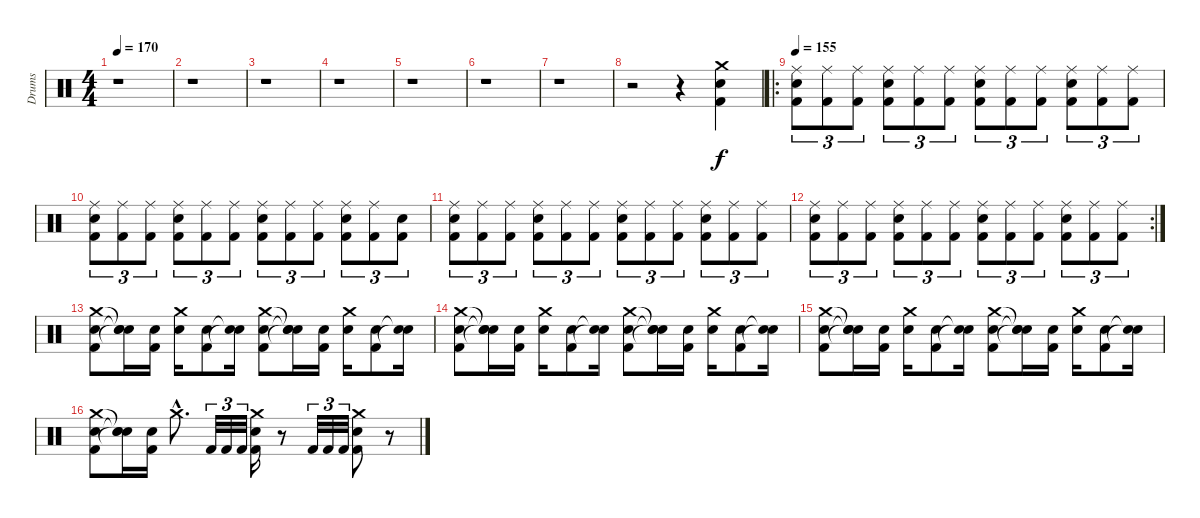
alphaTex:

\track ("Drums" "Drums") {instrument percussion}
\staff {score}
\articulation defaults
\ts (4 4)
\tempo 170
\clef neutral
\ks c
r.1{dy f} |
r.1 |
r.1 |
r.1 |
r.1 |
r.1 |
r.1 |
r.2 r.4 ("Kick (hit) 2" "Snare (hit) 2" "Crash medium (hit)").4 |
\ro
\tempo 155
("Kick (hit) 2" "Snare (hit) 2" "Ride (middle)").8{tu (3 2)} ("Kick (hit) 2" "Ride (middle)").8{tu (3 2)} ("Kick (hit) 2" "Ride (middle)").8{tu (3 2)} ("Kick (hit) 2" "Snare (hit) 2" "Ride (middle)").8{tu (3 2)} ("Kick (hit) 2" "Ride (middle)").8{tu (3 2)} ("Kick (hit) 2" "Ride (middle)").8{tu (3 2)} ("Kick (hit) 2" "Snare (hit) 2" "Ride (middle)").8{tu (3 2)} ("Kick (hit) 2" "Ride (middle)").8{tu (3 2)} ("Kick (hit) 2" "Ride (middle)").8{tu (3 2)} ("Kick (hit) 2" "Snare (hit) 2" "Ride (middle)").8{tu (3 2)} ("Kick (hit) 2" "Ride (middle)").8{tu (3 2)} ("Kick (hit) 2" "Ride (middle)").8{tu (3 2)} |
("Kick (hit) 2" "Snare (hit) 2" "Ride (middle)").8{tu (3 2)} ("Kick (hit) 2" "Ride (middle)").8{tu (3 2)} ("Kick (hit) 2" "Ride (middle)").8{tu (3 2)} ("Kick (hit) 2" "Snare (hit) 2" "Ride (middle)").8{tu (3 2)} ("Kick (hit) 2" "Ride (middle)").8{tu (3 2)} ("Kick (hit) 2" "Ride (middle)").8{tu (3 2)} ("Kick (hit) 2" "Snare (hit) 2" "Ride (middle)").8{tu (3 2)} ("Kick (hit) 2" "Ride (middle)").8{tu (3 2)} ("Kick (hit) 2" "Ride (middle)").8{tu (3 2)} ("Kick (hit) 2" "Snare (hit) 2" "Ride (middle)").8{tu (3 2)} ("Kick (hit) 2" "Ride (middle)").8{tu (3 2)} ("Kick (hit) 2" "Snare (hit)").8{tu (3 2)} |
("Kick (hit) 2" "Snare (hit) 2" "Ride (middle)").8{tu (3 2)} ("Kick (hit) 2" "Ride (middle)").8{tu (3 2)} ("Kick (hit) 2" "Ride (middle)").8{tu (3 2)} ("Kick (hit) 2" "Snare (hit) 2" "Ride (middle)").8{tu (3 2)} ("Kick (hit) 2" "Ride (middle)").8{tu (3 2)} ("Kick (hit) 2" "Ride (middle)").8{tu (3 2)} ("Kick (hit) 2" "Snare (hit) 2" "Ride (middle)").8{tu (3 2)} ("Kick (hit) 2" "Ride (middle)").8{tu (3 2)} ("Kick (hit) 2" "Ride (middle)").8{tu (3 2)} ("Kick (hit) 2" "Snare (hit) 2" "Ride (middle)").8{tu (3 2)} ("Kick (hit) 2" "Ride (middle)").8{tu (3 2)} ("Kick (hit) 2" "Ride (middle)").8{tu (3 2)} |
\rc 2
("Kick (hit) 2" "Snare (hit) 2" "Ride (middle)").8{tu (3 2)} ("Kick (hit) 2" "Ride (middle)").8{tu (3 2)} ("Kick (hit) 2" "Ride (middle)").8{tu (3 2)} ("Kick (hit) 2" "Snare (hit) 2" "Ride (middle)").8{tu (3 2)} ("Kick (hit) 2" "Ride (middle)").8{tu (3 2)} ("Kick (hit) 2" "Ride (middle)").8{tu (3 2)} ("Kick (hit) 2" "Snare (hit) 2" "Ride (middle)").8{tu (3 2)} ("Kick (hit) 2" "Ride (middle)").8{tu (3 2)} ("Kick (hit) 2" "Ride (middle)").8{tu (3 2)} ("Kick (hit) 2" "Snare (hit) 2" "Ride (middle)").8{tu (3 2)} ("Kick (hit) 2" "Ride (middle)").8{tu (3 2)} ("Kick (hit) 2" "Ride (middle)").8{tu (3 2)} |
("Kick (hit) 2" "Snare (hit) 2" "Crash medium (hit)").8 ("Snare (hit)"{t} "Snare (hit)"{t} "Snare (hit)"{t}).16 ("Kick (hit) 2" "Snare (hit) 2").16 ("Snare (hit) 2" "Crash medium (hit)").16 ("Kick (hit) 2" "Snare (hit) 2").8 ("Snare (hit)"{t} "Snare (hit)"{t}).16 ("Kick (hit) 2" "Snare (hit) 2" "Crash medium (hit)").8 ("Snare (hit)"{t} "Snare (hit)"{t} "Snare (hit)"{t}).16 ("Kick (hit) 2" "Snare (hit) 2").16 ("Snare (hit) 2" "Crash medium (hit)").16 ("Kick (hit) 2" "Snare (hit) 2").8 ("Snare (hit)"{t} "Snare (hit)"{t}).16 |
("Kick (hit) 2" "Snare (hit) 2" "Crash medium (hit)").8 ("Snare (hit)"{t} "Snare (hit)"{t} "Snare (hit)"{t}).16 ("Kick (hit) 2" "Snare (hit) 2").16 ("Snare (hit) 2" "Crash medium (hit)").16 ("Kick (hit) 2" "Snare (hit) 2").8 ("Snare (hit)"{t} "Snare (hit)"{t}).16 ("Kick (hit) 2" "Snare (hit) 2" "Crash medium (hit)").8 ("Snare (hit)"{t} "Snare (hit)"{t} "Snare (hit)"{t}).16 ("Kick (hit) 2" "Snare (hit) 2").16 ("Snare (hit) 2" "Crash medium (hit)").16 ("Kick (hit) 2" "Snare (hit) 2").8 ("Snare (hit)"{t} "Snare (hit)"{t}).16 |
("Kick (hit) 2" "Snare (hit) 2" "Crash medium (hit)").8 ("Snare (hit)"{t} "Snare (hit)"{t} "Snare (hit)"{t}).16 ("Kick (hit) 2" "Snare (hit) 2").16 ("Snare (hit) 2" "Crash medium (hit)").16 ("Kick (hit) 2" "Snare (hit) 2").8 ("Snare (hit)"{t} "Snare (hit)"{t}).16 ("Kick (hit) 2" "Snare (hit) 2" "Crash medium (hit)").8 ("Snare (hit)"{t} "Snare (hit)"{t} "Snare (hit)"{t}).16 ("Kick (hit) 2" "Snare (hit) 2").16 ("Snare (hit) 2" "Crash medium (hit)").16 ("Kick (hit) 2" "Snare (hit) 2").8 ("Snare (hit)"{t} "Snare (hit)"{t}).16 |
("Kick (hit) 2" "Snare (hit) 2" "Crash medium (hit)").8 ("Snare (hit)"{t} "Snare (hit)"{t} "Snare (hit)"{t}).16 ("Kick (hit) 2" "Snare (hit) 2").16 "Crash medium (hit)"{hac}.8{d} "Kick (hit) 2".32{tu (3 2)} "Kick (hit) 2".32{tu (3 2)} "Kick (hit) 2".32{tu (3 2)} ("Kick (hit) 2" "Snare (hit) 2" "Crash medium (hit)").16 r.8 "Kick (hit) 2".32{tu (3 2)} "Kick (hit) 2".32{tu (3 2)} "Kick (hit) 2".32{tu (3 2)} ("Kick (hit) 2" "Snare (hit) 2" "Crash medium (hit)").8 r.8
